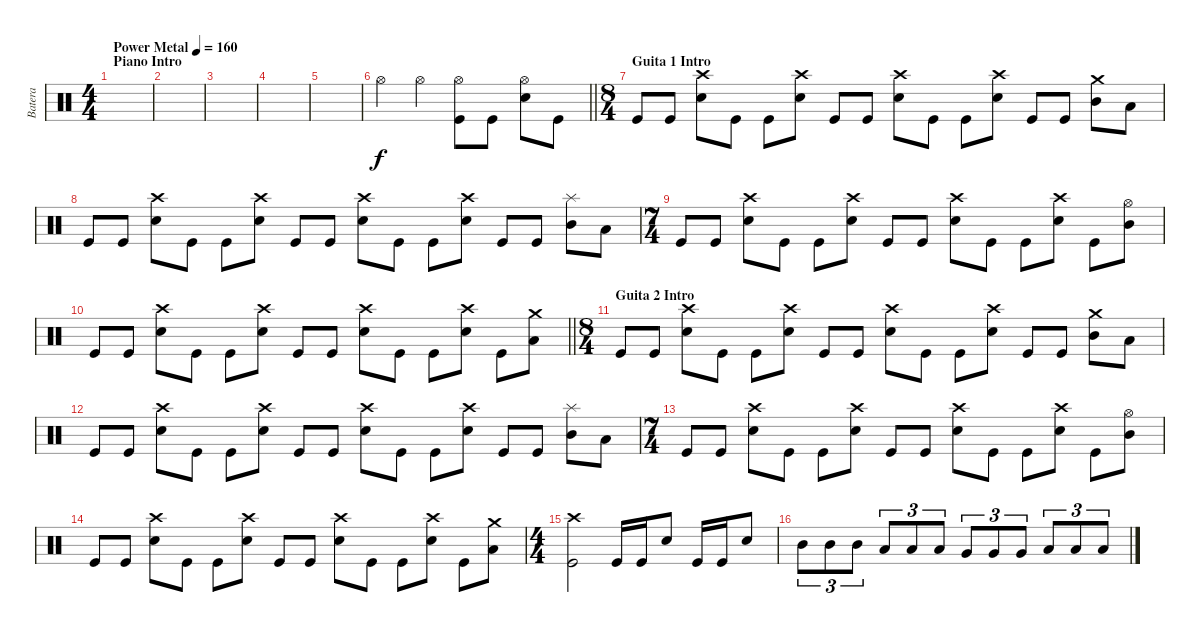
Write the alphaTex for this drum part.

\track ("Batera" "Batera") {instrument percussion}
\staff {score}
\articulation defaults
\ts (4 4)
\section ("" "Piano Intro")
\tempo (160 "Power Metal")
\clef neutral
\ks c
|
|
|
|
|
\barLineRight lightlight "Hi-Hat (open)".4 "Hi-Hat (open)".4
("Hi-Hat (open)" "Kick (hit)").8 "Kick (hit)".8 ("Hi-Hat (open)" "Snare (hit) 2").8 "Kick (hit)".8 |
\ts (8 4)
\section ("" "Guita 1 Intro")
"Kick (hit)".8 "Kick (hit)".8 ("Snare (hit) 2" "Crash high (hit)").8 "Kick (hit)".8 "Kick (hit)".8 ("Snare (hit) 2" "Crash high (hit)").8 "Kick (hit)".8 "Kick (hit)".8 ("Snare (hit) 2" "Crash high (hit)").8 "Kick (hit)".8 "Kick (hit)".8 ("Snare (hit) 2" "Crash high (hit)").8 "Kick (hit)".8 "Kick (hit)".8 ("Mid Tom (hit)" "Crash medium (hit)").8 "Low Tom (hit)".8 |
"Kick (hit)".8 "Kick (hit)".8 ("Snare (hit) 2" "Crash high (hit)").8 "Kick (hit)".8 "Kick (hit)".8 ("Snare (hit) 2" "Crash high (hit)").8 "Kick (hit)".8 "Kick (hit)".8 ("Snare (hit) 2" "Crash high (hit)").8 "Kick (hit)".8 "Kick (hit)".8 ("Snare (hit) 2" "Crash high (hit)").8 "Kick (hit)".8 "Kick (hit)".8 ("Mid Tom (hit)" "Splash (hit)").8 "Low Tom (hit)".8 |
\ts (7 4)
"Kick (hit)".8 "Kick (hit)".8 ("Snare (hit) 2" "Crash high (hit)").8 "Kick (hit)".8 "Kick (hit)".8 ("Snare (hit) 2" "Crash high (hit)").8 "Kick (hit)".8 "Kick (hit)".8 ("Snare (hit) 2" "Crash high (hit)").8 "Kick (hit)".8 "Kick (hit)".8 ("Snare (hit) 2" "Crash high (hit)").8 "Kick (hit)".8 ("Mid Tom (hit)" "Hi-Hat (open)").8 |
\barLineRight lightlight "Kick (hit)".8 "Kick (hit)".8
("Snare (hit) 2" "Crash high (hit)").8 "Kick (hit)".8 "Kick (hit)".8 ("Snare (hit) 2" "Crash high (hit)").8 "Kick (hit)".8 "Kick (hit)".8 ("Snare (hit) 2" "Crash high (hit)").8 "Kick (hit)".8 "Kick (hit)".8 ("Snare (hit) 2" "Crash high (hit)").8 "Kick (hit)".8 ("Low Tom (hit)" "Crash medium (hit)").8 |
\ts (8 4)
\section ("" "Guita 2 Intro")
"Kick (hit)".8 "Kick (hit)".8 ("Snare (hit) 2" "Crash high (hit)").8 "Kick (hit)".8 "Kick (hit)".8 ("Snare (hit) 2" "Crash high (hit)").8 "Kick (hit)".8 "Kick (hit)".8 ("Snare (hit) 2" "Crash high (hit)").8 "Kick (hit)".8 "Kick (hit)".8 ("Snare (hit) 2" "Crash high (hit)").8 "Kick (hit)".8 "Kick (hit)".8 ("Mid Tom (hit)" "Crash medium (hit)").8 "Low Tom (hit)".8 |
"Kick (hit)".8 "Kick (hit)".8 ("Snare (hit) 2" "Crash high (hit)").8 "Kick (hit)".8 "Kick (hit)".8 ("Snare (hit) 2" "Crash high (hit)").8 "Kick (hit)".8 "Kick (hit)".8 ("Snare (hit) 2" "Crash high (hit)").8 "Kick (hit)".8 "Kick (hit)".8 ("Snare (hit) 2" "Crash high (hit)").8 "Kick (hit)".8 "Kick (hit)".8 ("Mid Tom (hit)" "Splash (hit)").8 "Low Tom (hit)".8 |
\ts (7 4)
"Kick (hit)".8 "Kick (hit)".8 ("Snare (hit) 2" "Crash high (hit)").8 "Kick (hit)".8 "Kick (hit)".8 ("Snare (hit) 2" "Crash high (hit)").8 "Kick (hit)".8 "Kick (hit)".8 ("Snare (hit) 2" "Crash high (hit)").8 "Kick (hit)".8 "Kick (hit)".8 ("Snare (hit) 2" "Crash high (hit)").8 "Kick (hit)".8 ("Mid Tom (hit)" "Hi-Hat (open)").8 |
"Kick (hit)".8 "Kick (hit)".8 ("Snare (hit) 2" "Crash high (hit)").8 "Kick (hit)".8 "Kick (hit)".8 ("Snare (hit) 2" "Crash high (hit)").8 "Kick (hit)".8 "Kick (hit)".8 ("Snare (hit) 2" "Crash high (hit)").8 "Kick (hit)".8 "Kick (hit)".8 ("Snare (hit) 2" "Crash high (hit)").8 "Kick (hit)".8 ("Low Tom (hit)" "Crash medium (hit)").8 |
\ts (4 4)
("Crash high (hit)" "Kick (hit)").2 "Kick (hit)".16 "Kick (hit)".16 "Snare (hit) 2".8 "Kick (hit)".16 "Kick (hit)".16 "Snare (hit) 2".8 |
"Mid Tom (hit)".8{tu (3 2)} "Mid Tom (hit)".8{tu (3 2)} "Mid Tom (hit)".8{tu (3 2)} "Low Tom (hit)".8{tu (3 2)} "Low Tom (hit)".8{tu (3 2)} "Low Tom (hit)".8{tu (3 2)} "Very Low Tom (hit)".8{tu (3 2)} "Very Low Tom (hit)".8{tu (3 2)} "Very Low Tom (hit)".8{tu (3 2)} "Low Floor Tom (hit)".8{tu (3 2)} "Low Floor Tom (hit)".8{tu (3 2)} "Low Floor Tom (hit)".8{tu (3 2)}
